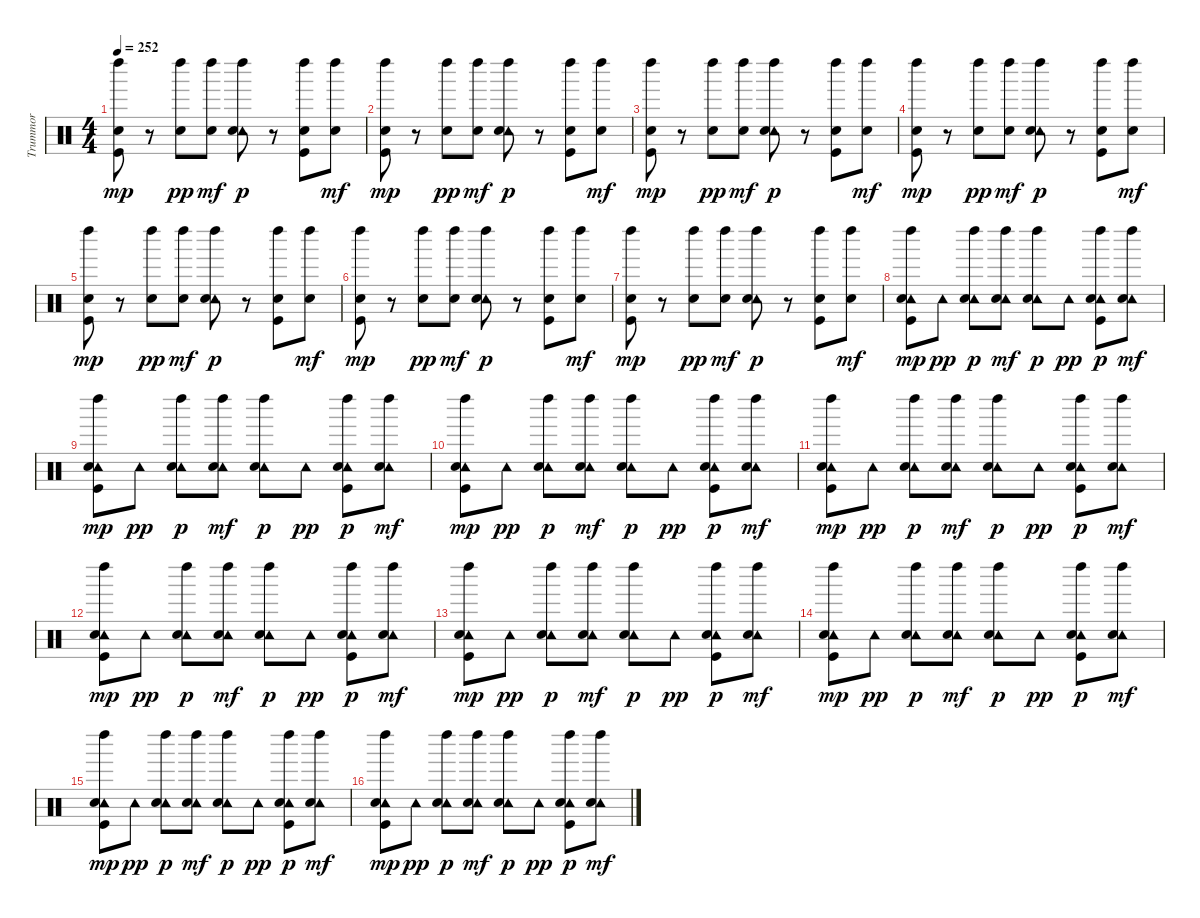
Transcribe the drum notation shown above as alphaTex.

\track ("Trummor" "Trummor") {instrument percussion}
\staff {score}
\articulation defaults
\ts (4 4)
\tempo 252
\clef neutral
\ks c
("Left Maraca (hit)" "Snare (hit) 2" "Kick (hit)").8{dy mp} r.8 ("Left Maraca (hit)" "Snare (hit) 2").8{dy pp} ("Left Maraca (hit)" "Snare (hit) 2").8{dy mf} ("Left Maraca (hit)" "Tambourine (hit)" "Snare (hit) 2").8{dy p} r.8 ("Left Maraca (hit)" "Snare (hit) 2" "Kick (hit)").8 ("Left Maraca (hit)" "Snare (hit) 2").8{dy mf} |
("Left Maraca (hit)" "Snare (hit) 2" "Kick (hit)").8{dy mp} r.8 ("Left Maraca (hit)" "Snare (hit) 2").8{dy pp} ("Left Maraca (hit)" "Snare (hit) 2").8{dy mf} ("Left Maraca (hit)" "Tambourine (hit)" "Snare (hit) 2").8{dy p} r.8 ("Left Maraca (hit)" "Snare (hit) 2" "Kick (hit)").8 ("Left Maraca (hit)" "Snare (hit) 2").8{dy mf} |
("Left Maraca (hit)" "Snare (hit) 2" "Kick (hit)").8{dy mp} r.8 ("Left Maraca (hit)" "Snare (hit) 2").8{dy pp} ("Left Maraca (hit)" "Snare (hit) 2").8{dy mf} ("Left Maraca (hit)" "Tambourine (hit)" "Snare (hit) 2").8{dy p} r.8 ("Left Maraca (hit)" "Snare (hit) 2" "Kick (hit)").8 ("Left Maraca (hit)" "Snare (hit) 2").8{dy mf} |
("Left Maraca (hit)" "Snare (hit) 2" "Kick (hit)").8{dy mp} r.8 ("Left Maraca (hit)" "Snare (hit) 2").8{dy pp} ("Left Maraca (hit)" "Snare (hit) 2").8{dy mf} ("Left Maraca (hit)" "Tambourine (hit)" "Snare (hit) 2").8{dy p} r.8 ("Left Maraca (hit)" "Snare (hit) 2" "Kick (hit)").8 ("Left Maraca (hit)" "Snare (hit) 2").8{dy mf} |
("Left Maraca (hit)" "Snare (hit) 2" "Kick (hit)").8{dy mp} r.8 ("Left Maraca (hit)" "Snare (hit) 2").8{dy pp} ("Left Maraca (hit)" "Snare (hit) 2").8{dy mf} ("Left Maraca (hit)" "Tambourine (hit)" "Snare (hit) 2").8{dy p} r.8 ("Left Maraca (hit)" "Snare (hit) 2" "Kick (hit)").8 ("Left Maraca (hit)" "Snare (hit) 2").8{dy mf} |
("Left Maraca (hit)" "Snare (hit) 2" "Kick (hit)").8{dy mp} r.8 ("Left Maraca (hit)" "Snare (hit) 2").8{dy pp} ("Left Maraca (hit)" "Snare (hit) 2").8{dy mf} ("Left Maraca (hit)" "Tambourine (hit)" "Snare (hit) 2").8{dy p} r.8 ("Left Maraca (hit)" "Snare (hit) 2" "Kick (hit)").8 ("Left Maraca (hit)" "Snare (hit) 2").8{dy mf} |
("Left Maraca (hit)" "Snare (hit) 2" "Kick (hit)").8{dy mp} r.8 ("Left Maraca (hit)" "Snare (hit) 2").8{dy pp} ("Left Maraca (hit)" "Snare (hit) 2").8{dy mf} ("Left Maraca (hit)" "Tambourine (hit)" "Snare (hit) 2").8{dy p} r.8 ("Left Maraca (hit)" "Snare (hit) 2" "Kick (hit)").8 ("Left Maraca (hit)" "Snare (hit) 2").8{dy mf} |
("Left Maraca (hit)" "Tambourine (hit)" "Snare (hit) 2" "Kick (hit)").8{dy mp} "Tambourine (hit)".8{dy pp} ("Left Maraca (hit)" "Tambourine (hit)" "Snare (hit) 2").8{dy p} ("Left Maraca (hit)" "Tambourine (hit)" "Snare (hit) 2").8{dy mf} ("Left Maraca (hit)" "Tambourine (hit)" "Snare (hit) 2").8{dy p} "Tambourine (hit)".8{dy pp} ("Left Maraca (hit)" "Tambourine (hit)" "Snare (hit) 2" "Kick (hit)").8{dy p} ("Left Maraca (hit)" "Tambourine (hit)" "Snare (hit) 2").8{dy mf} |
("Left Maraca (hit)" "Tambourine (hit)" "Snare (hit) 2" "Kick (hit)").8{dy mp} "Tambourine (hit)".8{dy pp} ("Left Maraca (hit)" "Tambourine (hit)" "Snare (hit) 2").8{dy p} ("Left Maraca (hit)" "Tambourine (hit)" "Snare (hit) 2").8{dy mf} ("Left Maraca (hit)" "Tambourine (hit)" "Snare (hit) 2").8{dy p} "Tambourine (hit)".8{dy pp} ("Left Maraca (hit)" "Tambourine (hit)" "Snare (hit) 2" "Kick (hit)").8{dy p} ("Left Maraca (hit)" "Tambourine (hit)" "Snare (hit) 2").8{dy mf} |
("Left Maraca (hit)" "Tambourine (hit)" "Snare (hit) 2" "Kick (hit)").8{dy mp} "Tambourine (hit)".8{dy pp} ("Left Maraca (hit)" "Tambourine (hit)" "Snare (hit) 2").8{dy p} ("Left Maraca (hit)" "Tambourine (hit)" "Snare (hit) 2").8{dy mf} ("Left Maraca (hit)" "Tambourine (hit)" "Snare (hit) 2").8{dy p} "Tambourine (hit)".8{dy pp} ("Left Maraca (hit)" "Tambourine (hit)" "Snare (hit) 2" "Kick (hit)").8{dy p} ("Left Maraca (hit)" "Tambourine (hit)" "Snare (hit) 2").8{dy mf} |
("Left Maraca (hit)" "Tambourine (hit)" "Snare (hit) 2" "Kick (hit)").8{dy mp} "Tambourine (hit)".8{dy pp} ("Left Maraca (hit)" "Tambourine (hit)" "Snare (hit) 2").8{dy p} ("Left Maraca (hit)" "Tambourine (hit)" "Snare (hit) 2").8{dy mf} ("Left Maraca (hit)" "Tambourine (hit)" "Snare (hit) 2").8{dy p} "Tambourine (hit)".8{dy pp} ("Left Maraca (hit)" "Tambourine (hit)" "Snare (hit) 2" "Kick (hit)").8{dy p} ("Left Maraca (hit)" "Tambourine (hit)" "Snare (hit) 2").8{dy mf} |
("Left Maraca (hit)" "Tambourine (hit)" "Snare (hit) 2" "Kick (hit)").8{dy mp} "Tambourine (hit)".8{dy pp} ("Left Maraca (hit)" "Tambourine (hit)" "Snare (hit) 2").8{dy p} ("Left Maraca (hit)" "Tambourine (hit)" "Snare (hit) 2").8{dy mf} ("Left Maraca (hit)" "Tambourine (hit)" "Snare (hit) 2").8{dy p} "Tambourine (hit)".8{dy pp} ("Left Maraca (hit)" "Tambourine (hit)" "Snare (hit) 2" "Kick (hit)").8{dy p} ("Left Maraca (hit)" "Tambourine (hit)" "Snare (hit) 2").8{dy mf} |
("Left Maraca (hit)" "Tambourine (hit)" "Snare (hit) 2" "Kick (hit)").8{dy mp} "Tambourine (hit)".8{dy pp} ("Left Maraca (hit)" "Tambourine (hit)" "Snare (hit) 2").8{dy p} ("Left Maraca (hit)" "Tambourine (hit)" "Snare (hit) 2").8{dy mf} ("Left Maraca (hit)" "Tambourine (hit)" "Snare (hit) 2").8{dy p} "Tambourine (hit)".8{dy pp} ("Left Maraca (hit)" "Tambourine (hit)" "Snare (hit) 2" "Kick (hit)").8{dy p} ("Left Maraca (hit)" "Tambourine (hit)" "Snare (hit) 2").8{dy mf} |
("Left Maraca (hit)" "Tambourine (hit)" "Snare (hit) 2" "Kick (hit)").8{dy mp} "Tambourine (hit)".8{dy pp} ("Left Maraca (hit)" "Tambourine (hit)" "Snare (hit) 2").8{dy p} ("Left Maraca (hit)" "Tambourine (hit)" "Snare (hit) 2").8{dy mf} ("Left Maraca (hit)" "Tambourine (hit)" "Snare (hit) 2").8{dy p} "Tambourine (hit)".8{dy pp} ("Left Maraca (hit)" "Tambourine (hit)" "Snare (hit) 2" "Kick (hit)").8{dy p} ("Left Maraca (hit)" "Tambourine (hit)" "Snare (hit) 2").8{dy mf} |
("Left Maraca (hit)" "Tambourine (hit)" "Snare (hit) 2" "Kick (hit)").8{dy mp} "Tambourine (hit)".8{dy pp} ("Left Maraca (hit)" "Tambourine (hit)" "Snare (hit) 2").8{dy p} ("Left Maraca (hit)" "Tambourine (hit)" "Snare (hit) 2").8{dy mf} ("Left Maraca (hit)" "Tambourine (hit)" "Snare (hit) 2").8{dy p} "Tambourine (hit)".8{dy pp} ("Left Maraca (hit)" "Tambourine (hit)" "Snare (hit) 2" "Kick (hit)").8{dy p} ("Left Maraca (hit)" "Tambourine (hit)" "Snare (hit) 2").8{dy mf} |
("Left Maraca (hit)" "Tambourine (hit)" "Snare (hit) 2" "Kick (hit)").8{dy mp} "Tambourine (hit)".8{dy pp} ("Left Maraca (hit)" "Tambourine (hit)" "Snare (hit) 2").8{dy p} ("Left Maraca (hit)" "Tambourine (hit)" "Snare (hit) 2").8{dy mf} ("Left Maraca (hit)" "Tambourine (hit)" "Snare (hit) 2").8{dy p} "Tambourine (hit)".8{dy pp} ("Left Maraca (hit)" "Tambourine (hit)" "Snare (hit) 2" "Kick (hit)").8{dy p} ("Left Maraca (hit)" "Tambourine (hit)" "Snare (hit) 2").8{dy mf}
